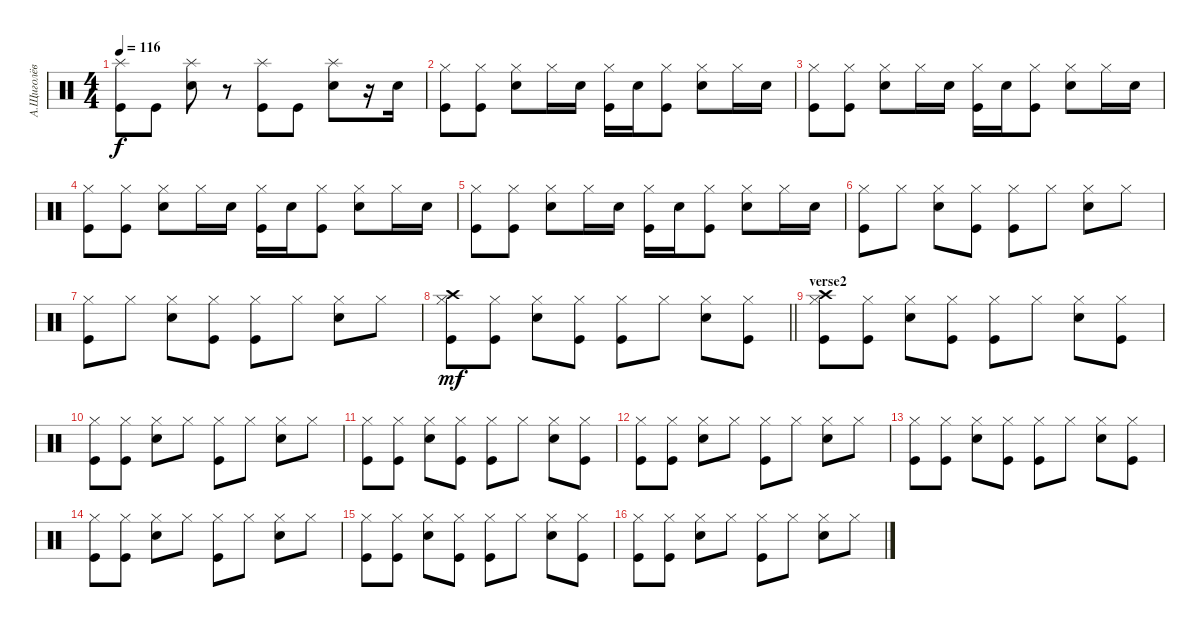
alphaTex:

\track ("А.Щиголёв" "А.Щиголёв") {instrument percussion}
\staff {score}
\articulation defaults
\ts (4 4)
\tempo 116
\clef neutral
\ks c
("Splash (hit)" "Kick (hit)").8{dy f} "Kick (hit)".8 ("Splash (hit)" "Electric Snare (hit)").8 r.8 ("Splash (hit)" "Kick (hit)").8 "Kick (hit)".8 ("Splash (hit)" "Electric Snare (hit)").8 r.16 "Electric Snare (hit)".16 |
("Hi-Hat (closed)" "Kick (hit)").8 ("Hi-Hat (closed)" "Kick (hit)").8 ("Hi-Hat (closed)" "Electric Snare (hit)").8 "Hi-Hat (closed)".16 "Electric Snare (hit)".16 ("Hi-Hat (closed)" "Kick (hit)").16 "Electric Snare (hit)".16 ("Hi-Hat (closed)" "Kick (hit)").8 ("Hi-Hat (closed)" "Electric Snare (hit)").8 "Hi-Hat (closed)".16 "Electric Snare (hit)".16 |
("Hi-Hat (closed)" "Kick (hit)").8 ("Hi-Hat (closed)" "Kick (hit)").8 ("Hi-Hat (closed)" "Electric Snare (hit)").8 "Hi-Hat (closed)".16 "Electric Snare (hit)".16 ("Hi-Hat (closed)" "Kick (hit)").16 "Electric Snare (hit)".16 ("Hi-Hat (closed)" "Kick (hit)").8 ("Hi-Hat (closed)" "Electric Snare (hit)").8 "Hi-Hat (closed)".16 "Electric Snare (hit)".16 |
("Hi-Hat (closed)" "Kick (hit)").8{volume 14} ("Hi-Hat (closed)" "Kick (hit)").8 ("Hi-Hat (closed)" "Electric Snare (hit)").8 "Hi-Hat (closed)".16 "Electric Snare (hit)".16 ("Hi-Hat (closed)" "Kick (hit)").16 "Electric Snare (hit)".16 ("Hi-Hat (closed)" "Kick (hit)").8 ("Hi-Hat (closed)" "Electric Snare (hit)").8 "Hi-Hat (closed)".16 "Electric Snare (hit)".16 |
("Hi-Hat (closed)" "Kick (hit)").8 ("Hi-Hat (closed)" "Kick (hit)").8 ("Hi-Hat (closed)" "Electric Snare (hit)").8 "Hi-Hat (closed)".16 "Electric Snare (hit)".16 ("Hi-Hat (closed)" "Kick (hit)").16 "Electric Snare (hit)".16 ("Hi-Hat (closed)" "Kick (hit)").8 ("Hi-Hat (closed)" "Electric Snare (hit)").8 "Hi-Hat (closed)".16 "Electric Snare (hit)".16 |
("Hi-Hat (closed)" "Kick (hit)").8 "Hi-Hat (closed)".8 ("Hi-Hat (closed)" "Electric Snare (hit)").8 ("Hi-Hat (closed)" "Kick (hit)").8 ("Hi-Hat (closed)" "Kick (hit)").8 "Hi-Hat (closed)".8 ("Hi-Hat (closed)" "Electric Snare (hit)").8 "Hi-Hat (closed)".8 |
("Hi-Hat (closed)" "Kick (hit)").8 "Hi-Hat (closed)".8 ("Hi-Hat (closed)" "Electric Snare (hit)").8 ("Hi-Hat (closed)" "Kick (hit)").8 ("Hi-Hat (closed)" "Kick (hit)").8 "Hi-Hat (closed)".8 ("Hi-Hat (closed)" "Electric Snare (hit)").8 "Hi-Hat (closed)".8 |
\barLineRight lightlight
("Crash high (hit)" "Kick (hit)" "Hi-Hat (closed)").8{dy mf} ("Kick (hit)" "Hi-Hat (closed)").8 ("Electric Snare (hit)" "Hi-Hat (closed)").8 ("Kick (hit)" "Hi-Hat (closed)").8 ("Kick (hit)" "Hi-Hat (closed)").8 "Hi-Hat (closed)".8 ("Electric Snare (hit)" "Hi-Hat (closed)").8 ("Kick (hit)" "Hi-Hat (closed)").8 |
\section ("" "verse2")
("Crash high (hit)" "Kick (hit)" "Hi-Hat (closed)").8 ("Kick (hit)" "Hi-Hat (closed)").8 ("Electric Snare (hit)" "Hi-Hat (closed)").8 ("Kick (hit)" "Hi-Hat (closed)").8 ("Kick (hit)" "Hi-Hat (closed)").8 "Hi-Hat (closed)".8 ("Electric Snare (hit)" "Hi-Hat (closed)").8 ("Kick (hit)" "Hi-Hat (closed)").8 |
("Kick (hit)" "Hi-Hat (closed)").8 ("Kick (hit)" "Hi-Hat (closed)").8 ("Electric Snare (hit)" "Hi-Hat (closed)").8 "Hi-Hat (closed)".8 ("Kick (hit)" "Hi-Hat (closed)").8 "Hi-Hat (closed)".8 ("Electric Snare (hit)" "Hi-Hat (closed)").8 "Hi-Hat (closed)".8 |
("Kick (hit)" "Hi-Hat (closed)").8 ("Kick (hit)" "Hi-Hat (closed)").8 ("Electric Snare (hit)" "Hi-Hat (closed)").8 ("Kick (hit)" "Hi-Hat (closed)").8 ("Kick (hit)" "Hi-Hat (closed)").8 "Hi-Hat (closed)".8 ("Electric Snare (hit)" "Hi-Hat (closed)").8 ("Kick (hit)" "Hi-Hat (closed)").8 |
("Kick (hit)" "Hi-Hat (closed)").8 ("Kick (hit)" "Hi-Hat (closed)").8 ("Electric Snare (hit)" "Hi-Hat (closed)").8 "Hi-Hat (closed)".8 ("Kick (hit)" "Hi-Hat (closed)").8 "Hi-Hat (closed)".8 ("Electric Snare (hit)" "Hi-Hat (closed)").8 "Hi-Hat (closed)".8 |
("Kick (hit)" "Hi-Hat (closed)").8 ("Kick (hit)" "Hi-Hat (closed)").8 ("Electric Snare (hit)" "Hi-Hat (closed)").8 ("Kick (hit)" "Hi-Hat (closed)").8 ("Kick (hit)" "Hi-Hat (closed)").8 "Hi-Hat (closed)".8 ("Electric Snare (hit)" "Hi-Hat (closed)").8 ("Kick (hit)" "Hi-Hat (closed)").8 |
("Kick (hit)" "Hi-Hat (closed)").8 ("Kick (hit)" "Hi-Hat (closed)").8 ("Electric Snare (hit)" "Hi-Hat (closed)").8 "Hi-Hat (closed)".8 ("Kick (hit)" "Hi-Hat (closed)").8 "Hi-Hat (closed)".8 ("Electric Snare (hit)" "Hi-Hat (closed)").8 "Hi-Hat (closed)".8 |
("Kick (hit)" "Hi-Hat (closed)").8 ("Kick (hit)" "Hi-Hat (closed)").8 ("Electric Snare (hit)" "Hi-Hat (closed)").8 ("Kick (hit)" "Hi-Hat (closed)").8 ("Kick (hit)" "Hi-Hat (closed)").8 "Hi-Hat (closed)".8 ("Electric Snare (hit)" "Hi-Hat (closed)").8 ("Kick (hit)" "Hi-Hat (closed)").8 |
("Kick (hit)" "Hi-Hat (closed)").8 ("Kick (hit)" "Hi-Hat (closed)").8 ("Electric Snare (hit)" "Hi-Hat (closed)").8 "Hi-Hat (closed)".8 ("Kick (hit)" "Hi-Hat (closed)").8 "Hi-Hat (closed)".8 ("Electric Snare (hit)" "Hi-Hat (closed)").8 "Hi-Hat (closed)".8
